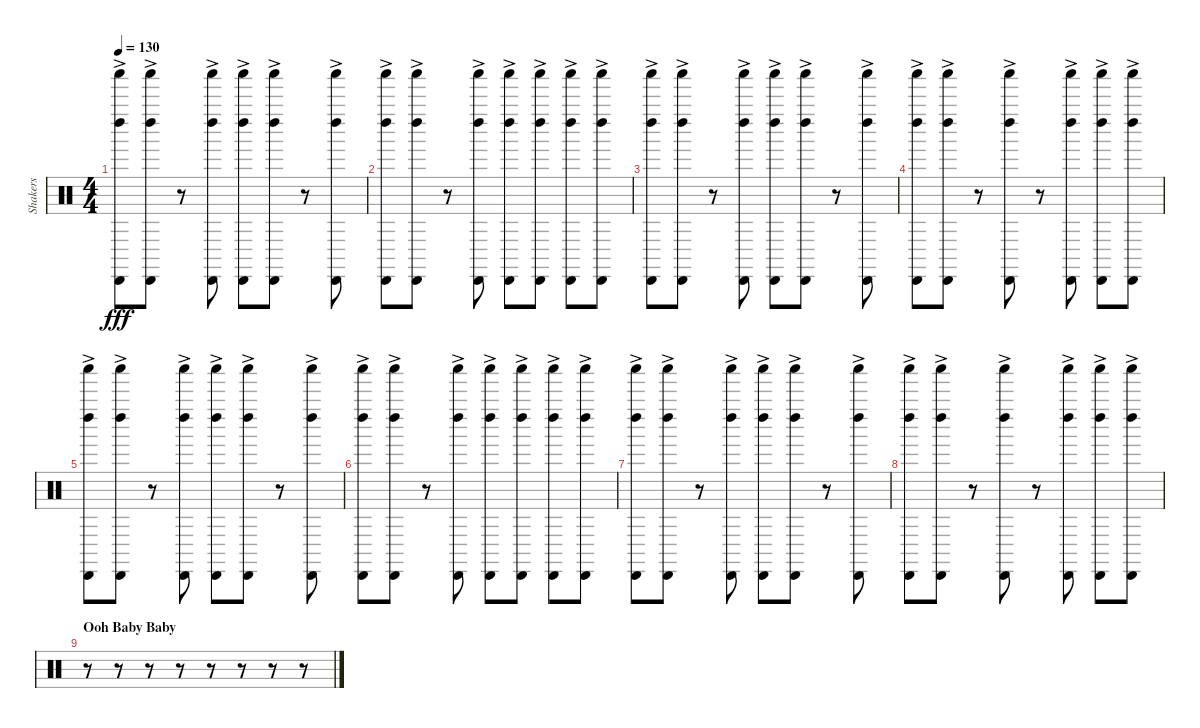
\track ("Shakers" "Shakers") {instrument percussion}
\staff {score}
\articulation defaults
\ts (4 4)
\tempo 130
\clef neutral
\ks c
("Cabasa (hit)"{ac} "Left Maraca (hit)"{ac} "Shaker (hit)"{ac}).8{dy fff} ("Cabasa (hit)"{ac} "Left Maraca (hit)"{ac} "Shaker (hit)"{ac}).8 r.8 ("Cabasa (hit)"{ac} "Left Maraca (hit)"{ac} "Shaker (hit)"{ac}).8 ("Cabasa (hit)"{ac} "Left Maraca (hit)"{ac} "Shaker (hit)"{ac}).8 ("Cabasa (hit)"{ac} "Left Maraca (hit)"{ac} "Shaker (hit)"{ac}).8 r.8 ("Cabasa (hit)"{ac} "Left Maraca (hit)"{ac} "Shaker (hit)"{ac}).8 |
("Cabasa (hit)"{ac} "Left Maraca (hit)"{ac} "Shaker (hit)"{ac}).8 ("Cabasa (hit)"{ac} "Left Maraca (hit)"{ac} "Shaker (hit)"{ac}).8 r.8 ("Cabasa (hit)"{ac} "Left Maraca (hit)"{ac} "Shaker (hit)"{ac}).8 ("Cabasa (hit)"{ac} "Left Maraca (hit)"{ac} "Shaker (hit)"{ac}).8 ("Cabasa (hit)"{ac} "Left Maraca (hit)"{ac} "Shaker (hit)"{ac}).8 ("Cabasa (hit)"{ac} "Left Maraca (hit)"{ac} "Shaker (hit)"{ac}).8 ("Cabasa (hit)"{ac} "Left Maraca (hit)"{ac} "Shaker (hit)"{ac}).8 |
("Cabasa (hit)"{ac} "Left Maraca (hit)"{ac} "Shaker (hit)"{ac}).8 ("Cabasa (hit)"{ac} "Left Maraca (hit)"{ac} "Shaker (hit)"{ac}).8 r.8 ("Cabasa (hit)"{ac} "Left Maraca (hit)"{ac} "Shaker (hit)"{ac}).8 ("Cabasa (hit)"{ac} "Left Maraca (hit)"{ac} "Shaker (hit)"{ac}).8 ("Cabasa (hit)"{ac} "Left Maraca (hit)"{ac} "Shaker (hit)"{ac}).8 r.8 ("Cabasa (hit)"{ac} "Left Maraca (hit)"{ac} "Shaker (hit)"{ac}).8 |
("Cabasa (hit)"{ac} "Left Maraca (hit)"{ac} "Shaker (hit)"{ac}).8 ("Cabasa (hit)"{ac} "Left Maraca (hit)"{ac} "Shaker (hit)"{ac}).8 r.8 ("Cabasa (hit)"{ac} "Left Maraca (hit)"{ac} "Shaker (hit)"{ac}).8 r.8 ("Cabasa (hit)"{ac} "Left Maraca (hit)"{ac} "Shaker (hit)"{ac}).8 ("Cabasa (hit)"{ac} "Left Maraca (hit)"{ac} "Shaker (hit)"{ac}).8 ("Cabasa (hit)"{ac} "Left Maraca (hit)"{ac} "Shaker (hit)"{ac}).8 |
("Cabasa (hit)"{ac} "Left Maraca (hit)"{ac} "Shaker (hit)"{ac}).8 ("Cabasa (hit)"{ac} "Left Maraca (hit)"{ac} "Shaker (hit)"{ac}).8 r.8 ("Cabasa (hit)"{ac} "Left Maraca (hit)"{ac} "Shaker (hit)"{ac}).8 ("Cabasa (hit)"{ac} "Left Maraca (hit)"{ac} "Shaker (hit)"{ac}).8 ("Cabasa (hit)"{ac} "Left Maraca (hit)"{ac} "Shaker (hit)"{ac}).8 r.8 ("Cabasa (hit)"{ac} "Left Maraca (hit)"{ac} "Shaker (hit)"{ac}).8 |
("Cabasa (hit)"{ac} "Left Maraca (hit)"{ac} "Shaker (hit)"{ac}).8 ("Cabasa (hit)"{ac} "Left Maraca (hit)"{ac} "Shaker (hit)"{ac}).8 r.8 ("Cabasa (hit)"{ac} "Left Maraca (hit)"{ac} "Shaker (hit)"{ac}).8 ("Cabasa (hit)"{ac} "Left Maraca (hit)"{ac} "Shaker (hit)"{ac}).8 ("Cabasa (hit)"{ac} "Left Maraca (hit)"{ac} "Shaker (hit)"{ac}).8 ("Cabasa (hit)"{ac} "Left Maraca (hit)"{ac} "Shaker (hit)"{ac}).8 ("Cabasa (hit)"{ac} "Left Maraca (hit)"{ac} "Shaker (hit)"{ac}).8 |
("Cabasa (hit)"{ac} "Left Maraca (hit)"{ac} "Shaker (hit)"{ac}).8 ("Cabasa (hit)"{ac} "Left Maraca (hit)"{ac} "Shaker (hit)"{ac}).8 r.8 ("Cabasa (hit)"{ac} "Left Maraca (hit)"{ac} "Shaker (hit)"{ac}).8 ("Cabasa (hit)"{ac} "Left Maraca (hit)"{ac} "Shaker (hit)"{ac}).8 ("Cabasa (hit)"{ac} "Left Maraca (hit)"{ac} "Shaker (hit)"{ac}).8 r.8 ("Cabasa (hit)"{ac} "Left Maraca (hit)"{ac} "Shaker (hit)"{ac}).8 |
("Cabasa (hit)"{ac} "Left Maraca (hit)"{ac} "Shaker (hit)"{ac}).8 ("Cabasa (hit)"{ac} "Left Maraca (hit)"{ac} "Shaker (hit)"{ac}).8 r.8 ("Cabasa (hit)"{ac} "Left Maraca (hit)"{ac} "Shaker (hit)"{ac}).8 r.8 ("Cabasa (hit)"{ac} "Left Maraca (hit)"{ac} "Shaker (hit)"{ac}).8 ("Cabasa (hit)"{ac} "Left Maraca (hit)"{ac} "Shaker (hit)"{ac}).8 ("Cabasa (hit)"{ac} "Left Maraca (hit)"{ac} "Shaker (hit)"{ac}).8 |
\section ("" "Ooh Baby Baby")
r.8 r.8 r.8 r.8 r.8 r.8 r.8 r.8
